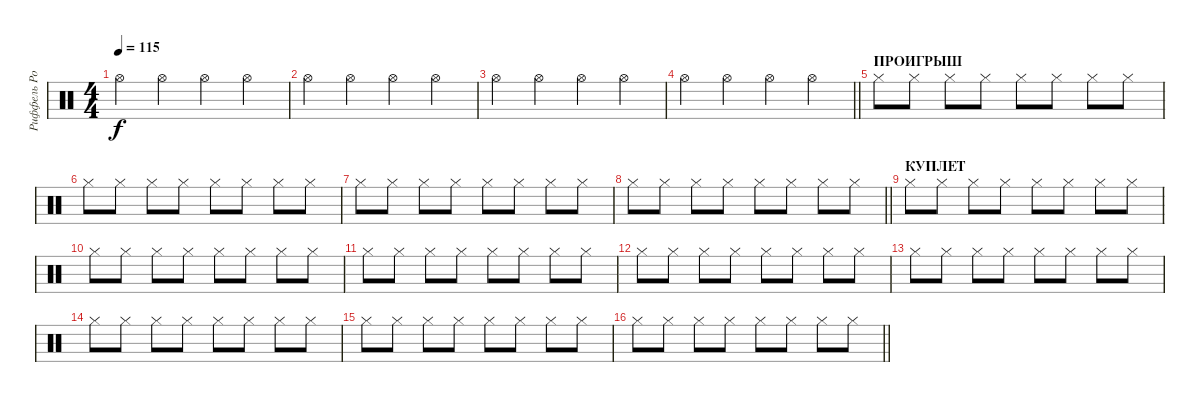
\track ("Риффель Роман (хэты)" "Риффель Ро") {instrument percussion}
\staff {score}
\articulation defaults
\ts (4 4)
\tempo 115
\clef neutral
\ks c "Hi-Hat (open)".4{dy f} "Hi-Hat (open)".4 "Hi-Hat (open)".4 "Hi-Hat (open)".4
|
"Hi-Hat (open)".4 "Hi-Hat (open)".4 "Hi-Hat (open)".4 "Hi-Hat (open)".4 |
"Hi-Hat (open)".4 "Hi-Hat (open)".4 "Hi-Hat (open)".4 "Hi-Hat (open)".4 |
\barLineRight lightlight "Hi-Hat (open)".4 "Hi-Hat (open)".4 "Hi-Hat (open)".4 "Hi-Hat (open)".4
|
\section ("" "ПРОИГРЫШ")
"Hi-Hat (closed)".8 "Hi-Hat (closed)".8 "Hi-Hat (closed)".8 "Hi-Hat (closed)".8 "Hi-Hat (closed)".8 "Hi-Hat (closed)".8 "Hi-Hat (closed)".8 "Hi-Hat (closed)".8 |
"Hi-Hat (closed)".8 "Hi-Hat (closed)".8 "Hi-Hat (closed)".8 "Hi-Hat (closed)".8 "Hi-Hat (closed)".8 "Hi-Hat (closed)".8 "Hi-Hat (closed)".8 "Hi-Hat (closed)".8 |
"Hi-Hat (closed)".8 "Hi-Hat (closed)".8 "Hi-Hat (closed)".8 "Hi-Hat (closed)".8 "Hi-Hat (closed)".8 "Hi-Hat (closed)".8 "Hi-Hat (closed)".8 "Hi-Hat (closed)".8 |
\barLineRight lightlight "Hi-Hat (closed)".8 "Hi-Hat (closed)".8 "Hi-Hat (closed)".8 "Hi-Hat (closed)".8 "Hi-Hat (closed)".8 "Hi-Hat (closed)".8 "Hi-Hat (closed)".8 "Hi-Hat (closed)".8
|
\section ("" "КУПЛЕТ")
"Hi-Hat (closed)".8 "Hi-Hat (closed)".8 "Hi-Hat (closed)".8 "Hi-Hat (closed)".8 "Hi-Hat (closed)".8 "Hi-Hat (closed)".8 "Hi-Hat (closed)".8 "Hi-Hat (closed)".8 |
"Hi-Hat (closed)".8 "Hi-Hat (closed)".8 "Hi-Hat (closed)".8 "Hi-Hat (closed)".8 "Hi-Hat (closed)".8 "Hi-Hat (closed)".8 "Hi-Hat (closed)".8 "Hi-Hat (closed)".8 |
"Hi-Hat (closed)".8 "Hi-Hat (closed)".8 "Hi-Hat (closed)".8 "Hi-Hat (closed)".8 "Hi-Hat (closed)".8 "Hi-Hat (closed)".8 "Hi-Hat (closed)".8 "Hi-Hat (closed)".8 |
"Hi-Hat (closed)".8 "Hi-Hat (closed)".8 "Hi-Hat (closed)".8 "Hi-Hat (closed)".8 "Hi-Hat (closed)".8 "Hi-Hat (closed)".8 "Hi-Hat (closed)".8 "Hi-Hat (closed)".8 |
"Hi-Hat (closed)".8 "Hi-Hat (closed)".8 "Hi-Hat (closed)".8 "Hi-Hat (closed)".8 "Hi-Hat (closed)".8 "Hi-Hat (closed)".8 "Hi-Hat (closed)".8 "Hi-Hat (closed)".8 |
"Hi-Hat (closed)".8 "Hi-Hat (closed)".8 "Hi-Hat (closed)".8 "Hi-Hat (closed)".8 "Hi-Hat (closed)".8 "Hi-Hat (closed)".8 "Hi-Hat (closed)".8 "Hi-Hat (closed)".8 |
"Hi-Hat (closed)".8 "Hi-Hat (closed)".8 "Hi-Hat (closed)".8 "Hi-Hat (closed)".8 "Hi-Hat (closed)".8 "Hi-Hat (closed)".8 "Hi-Hat (closed)".8 "Hi-Hat (closed)".8 |
\barLineRight lightlight "Hi-Hat (closed)".8 "Hi-Hat (closed)".8 "Hi-Hat (closed)".8 "Hi-Hat (closed)".8 "Hi-Hat (closed)".8 "Hi-Hat (closed)".8 "Hi-Hat (closed)".8 "Hi-Hat (closed)".8
